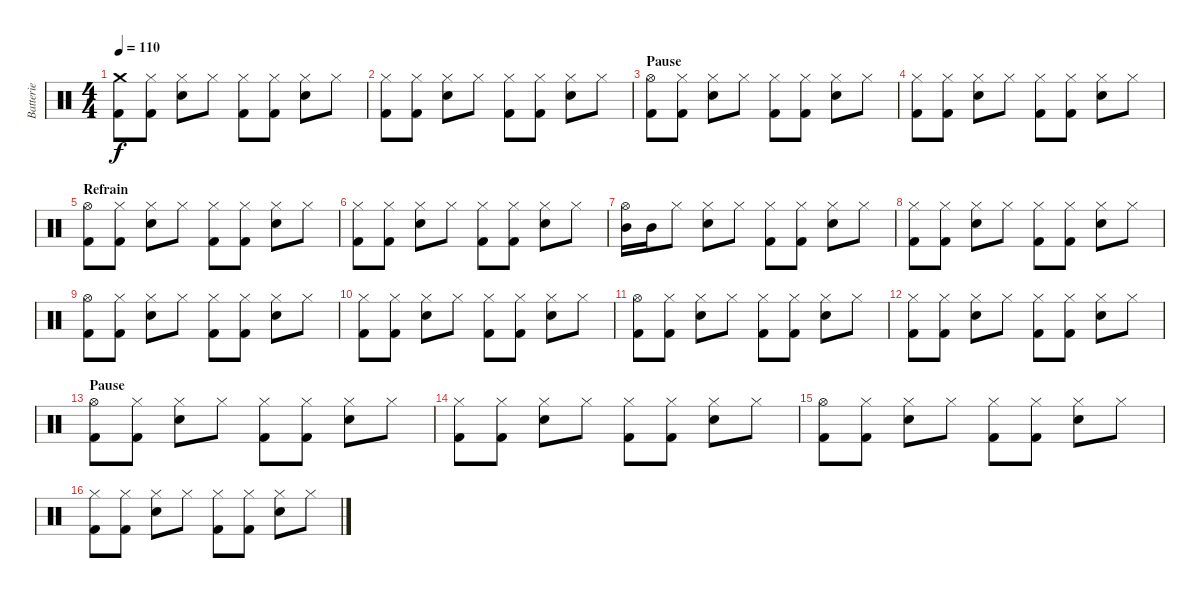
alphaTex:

\track ("Batterie" "Batterie") {instrument percussion}
\staff {score}
\articulation defaults
\ts (4 4)
\tempo 110
\clef neutral
\ks c
("Crash medium (hit)" "Kick (hit) 2").8{dy f} ("Hi-Hat (closed)" "Kick (hit) 2").8 ("Hi-Hat (closed)" "Electric Snare (hit)").8 "Hi-Hat (closed)".8 ("Hi-Hat (closed)" "Kick (hit) 2").8 ("Hi-Hat (closed)" "Kick (hit) 2").8 ("Hi-Hat (closed)" "Electric Snare (hit)").8 "Hi-Hat (closed)".8 |
("Hi-Hat (closed)" "Kick (hit) 2").8 ("Hi-Hat (closed)" "Kick (hit) 2").8 ("Hi-Hat (closed)" "Electric Snare (hit)").8 "Hi-Hat (closed)".8 ("Hi-Hat (closed)" "Kick (hit) 2").8 ("Hi-Hat (closed)" "Kick (hit) 2").8 ("Hi-Hat (closed)" "Electric Snare (hit)").8 "Hi-Hat (closed)".8 |
\section ("" "Pause ")
("Hi-Hat (open)" "Kick (hit) 2").8 ("Hi-Hat (closed)" "Kick (hit) 2").8 ("Hi-Hat (closed)" "Electric Snare (hit)").8 "Hi-Hat (closed)".8 ("Hi-Hat (closed)" "Kick (hit) 2").8 ("Hi-Hat (closed)" "Kick (hit) 2").8 ("Hi-Hat (closed)" "Electric Snare (hit)").8 "Hi-Hat (closed)".8 |
("Hi-Hat (closed)" "Kick (hit) 2").8 ("Hi-Hat (closed)" "Kick (hit) 2").8 ("Hi-Hat (closed)" "Electric Snare (hit)").8 "Hi-Hat (closed)".8 ("Hi-Hat (closed)" "Kick (hit) 2").8 ("Hi-Hat (closed)" "Kick (hit) 2").8 ("Hi-Hat (closed)" "Electric Snare (hit)").8 "Hi-Hat (closed)".8 |
\section ("" "Refrain")
("Hi-Hat (open)" "Kick (hit) 2").8 ("Hi-Hat (closed)" "Kick (hit) 2").8 ("Hi-Hat (closed)" "Electric Snare (hit)").8 "Hi-Hat (closed)".8 ("Hi-Hat (closed)" "Kick (hit) 2").8 ("Hi-Hat (closed)" "Kick (hit) 2").8 ("Hi-Hat (closed)" "Electric Snare (hit)").8 "Hi-Hat (closed)".8 |
("Hi-Hat (closed)" "Kick (hit) 2").8 ("Hi-Hat (closed)" "Kick (hit) 2").8 ("Hi-Hat (closed)" "Electric Snare (hit)").8 "Hi-Hat (closed)".8 ("Hi-Hat (closed)" "Kick (hit) 2").8 ("Hi-Hat (closed)" "Kick (hit) 2").8 ("Hi-Hat (closed)" "Electric Snare (hit)").8 "Hi-Hat (closed)".8 |
("Hi-Hat (open)" "Mid Tom (hit)").16 "Mid Tom (hit)".16 "Hi-Hat (closed)".8 ("Hi-Hat (closed)" "Electric Snare (hit)").8 "Hi-Hat (closed)".8 ("Hi-Hat (closed)" "Kick (hit) 2").8 ("Hi-Hat (closed)" "Kick (hit) 2").8 ("Hi-Hat (closed)" "Electric Snare (hit)").8 "Hi-Hat (closed)".8 |
("Hi-Hat (closed)" "Kick (hit) 2").8 ("Hi-Hat (closed)" "Kick (hit) 2").8 ("Hi-Hat (closed)" "Electric Snare (hit)").8 "Hi-Hat (closed)".8 ("Hi-Hat (closed)" "Kick (hit) 2").8 ("Hi-Hat (closed)" "Kick (hit) 2").8 ("Hi-Hat (closed)" "Electric Snare (hit)").8 "Hi-Hat (closed)".8 |
("Hi-Hat (open)" "Kick (hit) 2").8 ("Hi-Hat (closed)" "Kick (hit) 2").8 ("Hi-Hat (closed)" "Electric Snare (hit)").8 "Hi-Hat (closed)".8 ("Hi-Hat (closed)" "Kick (hit) 2").8 ("Hi-Hat (closed)" "Kick (hit) 2").8 ("Hi-Hat (closed)" "Electric Snare (hit)").8 "Hi-Hat (closed)".8 |
("Hi-Hat (closed)" "Kick (hit) 2").8 ("Hi-Hat (closed)" "Kick (hit) 2").8 ("Hi-Hat (closed)" "Electric Snare (hit)").8 "Hi-Hat (closed)".8 ("Hi-Hat (closed)" "Kick (hit) 2").8 ("Hi-Hat (closed)" "Kick (hit) 2").8 ("Hi-Hat (closed)" "Electric Snare (hit)").8 "Hi-Hat (closed)".8 |
("Hi-Hat (open)" "Kick (hit) 2").8 ("Hi-Hat (closed)" "Kick (hit) 2").8 ("Hi-Hat (closed)" "Electric Snare (hit)").8 "Hi-Hat (closed)".8 ("Hi-Hat (closed)" "Kick (hit) 2").8 ("Hi-Hat (closed)" "Kick (hit) 2").8 ("Hi-Hat (closed)" "Electric Snare (hit)").8 "Hi-Hat (closed)".8 |
("Hi-Hat (closed)" "Kick (hit) 2").8 ("Hi-Hat (closed)" "Kick (hit) 2").8 ("Hi-Hat (closed)" "Electric Snare (hit)").8 "Hi-Hat (closed)".8 ("Hi-Hat (closed)" "Kick (hit) 2").8 ("Hi-Hat (closed)" "Kick (hit) 2").8 ("Hi-Hat (closed)" "Electric Snare (hit)").8 "Hi-Hat (closed)".8 |
\section ("" "Pause ")
("Hi-Hat (open)" "Kick (hit) 2").8 ("Hi-Hat (closed)" "Kick (hit) 2").8 ("Hi-Hat (closed)" "Electric Snare (hit)").8 "Hi-Hat (closed)".8 ("Hi-Hat (closed)" "Kick (hit) 2").8 ("Hi-Hat (closed)" "Kick (hit) 2").8 ("Hi-Hat (closed)" "Electric Snare (hit)").8 "Hi-Hat (closed)".8 |
("Hi-Hat (closed)" "Kick (hit) 2").8 ("Hi-Hat (closed)" "Kick (hit) 2").8 ("Hi-Hat (closed)" "Electric Snare (hit)").8 "Hi-Hat (closed)".8 ("Hi-Hat (closed)" "Kick (hit) 2").8 ("Hi-Hat (closed)" "Kick (hit) 2").8 ("Hi-Hat (closed)" "Electric Snare (hit)").8 "Hi-Hat (closed)".8 |
("Hi-Hat (open)" "Kick (hit) 2").8 ("Hi-Hat (closed)" "Kick (hit) 2").8 ("Hi-Hat (closed)" "Electric Snare (hit)").8 "Hi-Hat (closed)".8 ("Hi-Hat (closed)" "Kick (hit) 2").8 ("Hi-Hat (closed)" "Kick (hit) 2").8 ("Hi-Hat (closed)" "Electric Snare (hit)").8 "Hi-Hat (closed)".8 |
("Hi-Hat (closed)" "Kick (hit) 2").8 ("Hi-Hat (closed)" "Kick (hit) 2").8 ("Hi-Hat (closed)" "Electric Snare (hit)").8 "Hi-Hat (closed)".8 ("Hi-Hat (closed)" "Kick (hit) 2").8 ("Hi-Hat (closed)" "Kick (hit) 2").8 ("Hi-Hat (closed)" "Electric Snare (hit)").8 "Hi-Hat (closed)".8
